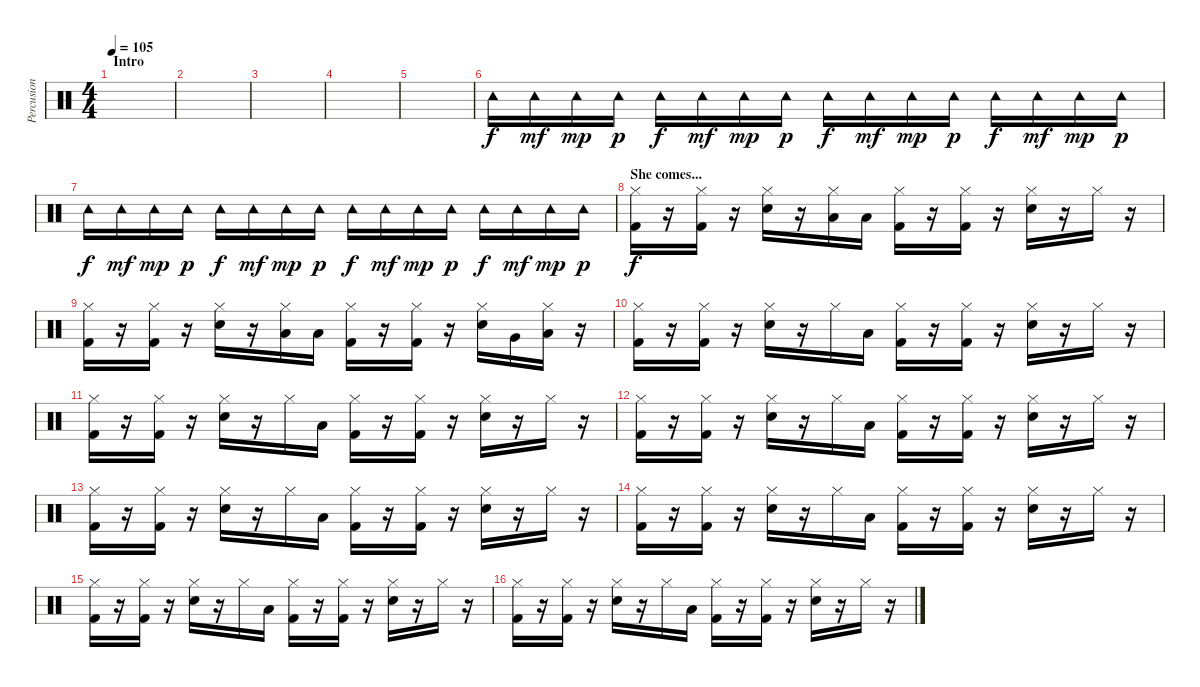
\track ("Percusion" "Percusion") {instrument percussion}
\staff {score}
\articulation defaults
\ts (4 4)
\section ("" "Intro")
\tempo 105
\tempo 70
\tempo 105
\clef neutral
\ks c
|
|
|
|
|
"Tambourine (hit)".16 "Tambourine (hit)".16{dy mf} "Tambourine (hit)".16{dy mp} "Tambourine (hit)".16{dy p} "Tambourine (hit)".16{dy f} "Tambourine (hit)".16{dy mf} "Tambourine (hit)".16{dy mp} "Tambourine (hit)".16{dy p} "Tambourine (hit)".16{dy f} "Tambourine (hit)".16{dy mf} "Tambourine (hit)".16{dy mp} "Tambourine (hit)".16{dy p} "Tambourine (hit)".16{dy f} "Tambourine (hit)".16{dy mf} "Tambourine (hit)".16{dy mp} "Tambourine (hit)".16{dy p} |
"Tambourine (hit)".16{dy f} "Tambourine (hit)".16{dy mf} "Tambourine (hit)".16{dy mp} "Tambourine (hit)".16{dy p} "Tambourine (hit)".16{dy f} "Tambourine (hit)".16{dy mf} "Tambourine (hit)".16{dy mp} "Tambourine (hit)".16{dy p} "Tambourine (hit)".16{dy f} "Tambourine (hit)".16{dy mf} "Tambourine (hit)".16{dy mp} "Tambourine (hit)".16{dy p} "Tambourine (hit)".16{dy f} "Tambourine (hit)".16{dy mf} "Tambourine (hit)".16{dy mp} "Tambourine (hit)".16{dy p} |
\section ("" "She comes...")
("Hi-Hat (closed)" "Kick (hit) 2").16{dy f} r.16 ("Hi-Hat (closed)" "Kick (hit) 2").16 r.16 ("Hi-Hat (closed)" "Snare (hit) 2").16 r.16 ("Hi-Hat (closed)" "Low Floor Tom (hit)").16 "Low Tom (hit)".16 ("Hi-Hat (closed)" "Kick (hit) 2").16 r.16 ("Hi-Hat (closed)" "Kick (hit) 2").16 r.16 ("Hi-Hat (closed)" "Snare (hit) 2").16 r.16 "Hi-Hat (closed)".16 r.16 |
("Hi-Hat (closed)" "Kick (hit) 2").16 r.16 ("Hi-Hat (closed)" "Kick (hit) 2").16 r.16 ("Hi-Hat (closed)" "Snare (hit) 2").16 r.16 ("Hi-Hat (closed)" "Low Floor Tom (hit)").16 "Low Tom (hit)".16 ("Hi-Hat (closed)" "Kick (hit) 2").16 r.16 ("Hi-Hat (closed)" "Kick (hit) 2").16 r.16 ("Hi-Hat (closed)" "Snare (hit) 2").16 "Very Low Tom (hit)".16 ("Hi-Hat (closed)" "Low Floor Tom (hit)").16 r.16 |
("Hi-Hat (closed)" "Kick (hit) 2").16 r.16 ("Hi-Hat (closed)" "Kick (hit) 2").16 r.16 ("Hi-Hat (closed)" "Snare (hit) 2").16 r.16 "Hi-Hat (closed)".16 "Low Floor Tom (hit)".16 ("Hi-Hat (closed)" "Kick (hit) 2").16 r.16 ("Hi-Hat (closed)" "Kick (hit) 2").16 r.16 ("Hi-Hat (closed)" "Snare (hit) 2").16 r.16 "Hi-Hat (closed)".16 r.16 |
("Hi-Hat (closed)" "Kick (hit) 2").16 r.16 ("Hi-Hat (closed)" "Kick (hit) 2").16 r.16 ("Hi-Hat (closed)" "Snare (hit) 2").16 r.16 "Hi-Hat (closed)".16 "Low Floor Tom (hit)".16 ("Hi-Hat (closed)" "Kick (hit) 2").16 r.16 ("Hi-Hat (closed)" "Kick (hit) 2").16 r.16 ("Hi-Hat (closed)" "Snare (hit) 2").16 r.16 "Hi-Hat (closed)".16 r.16 |
("Hi-Hat (closed)" "Kick (hit) 2").16 r.16 ("Hi-Hat (closed)" "Kick (hit) 2").16 r.16 ("Hi-Hat (closed)" "Snare (hit) 2").16 r.16 "Hi-Hat (closed)".16 "Low Floor Tom (hit)".16 ("Hi-Hat (closed)" "Kick (hit) 2").16 r.16 ("Hi-Hat (closed)" "Kick (hit) 2").16 r.16 ("Hi-Hat (closed)" "Snare (hit) 2").16 r.16 "Hi-Hat (closed)".16 r.16 |
("Hi-Hat (closed)" "Kick (hit) 2").16 r.16 ("Hi-Hat (closed)" "Kick (hit) 2").16 r.16 ("Hi-Hat (closed)" "Snare (hit) 2").16 r.16 "Hi-Hat (closed)".16 "Low Floor Tom (hit)".16 ("Hi-Hat (closed)" "Kick (hit) 2").16 r.16 ("Hi-Hat (closed)" "Kick (hit) 2").16 r.16 ("Hi-Hat (closed)" "Snare (hit) 2").16 r.16 "Hi-Hat (closed)".16 r.16 |
("Hi-Hat (closed)" "Kick (hit) 2").16 r.16 ("Hi-Hat (closed)" "Kick (hit) 2").16 r.16 ("Hi-Hat (closed)" "Snare (hit) 2").16 r.16 "Hi-Hat (closed)".16 "Low Floor Tom (hit)".16 ("Hi-Hat (closed)" "Kick (hit) 2").16 r.16 ("Hi-Hat (closed)" "Kick (hit) 2").16 r.16 ("Hi-Hat (closed)" "Snare (hit) 2").16 r.16 "Hi-Hat (closed)".16 r.16 |
("Hi-Hat (closed)" "Kick (hit) 2").16 r.16 ("Hi-Hat (closed)" "Kick (hit) 2").16 r.16 ("Hi-Hat (closed)" "Snare (hit) 2").16 r.16 "Hi-Hat (closed)".16 "Low Floor Tom (hit)".16 ("Hi-Hat (closed)" "Kick (hit) 2").16 r.16 ("Hi-Hat (closed)" "Kick (hit) 2").16 r.16 ("Hi-Hat (closed)" "Snare (hit) 2").16 r.16 "Hi-Hat (closed)".16 r.16 |
("Hi-Hat (closed)" "Kick (hit) 2").16 r.16 ("Hi-Hat (closed)" "Kick (hit) 2").16 r.16 ("Hi-Hat (closed)" "Snare (hit) 2").16 r.16 "Hi-Hat (closed)".16 "Low Floor Tom (hit)".16 ("Hi-Hat (closed)" "Kick (hit) 2").16 r.16 ("Hi-Hat (closed)" "Kick (hit) 2").16 r.16 ("Hi-Hat (closed)" "Snare (hit) 2").16 r.16 "Hi-Hat (closed)".16 r.16
